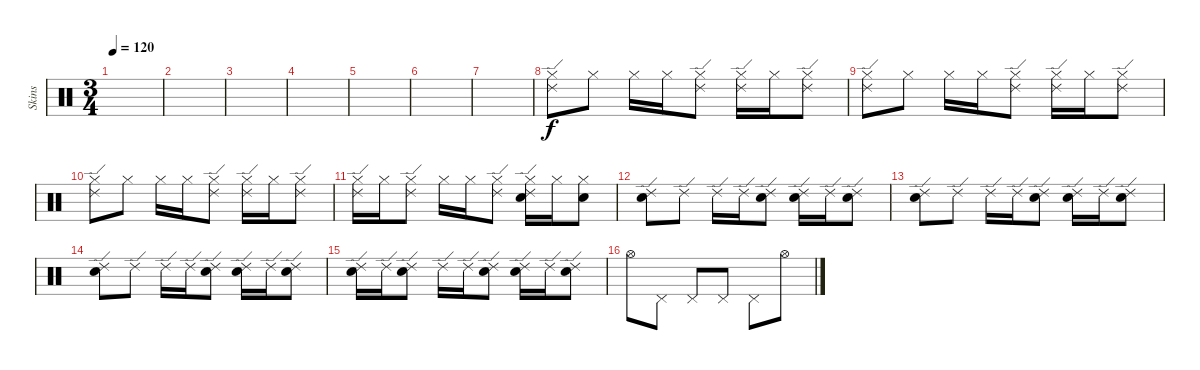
\track ("Skins" "Skins") {instrument percussion}
\staff {score}
\articulation defaults
\ts (3 4)
\tempo 120
\clef neutral
\ks c
|
|
|
|
|
|
|
("Ride (edge) 2" "Hi-Hat (closed)").8 "Hi-Hat (closed)".8 "Hi-Hat (closed)".16 "Hi-Hat (closed)".16 ("Ride (edge) 2" "Hi-Hat (closed)").8 ("Ride (edge) 2" "Hi-Hat (closed)").16 "Hi-Hat (closed)".16 ("Ride (edge) 2" "Hi-Hat (closed)").8 |
("Ride (edge) 2" "Hi-Hat (closed)").8 "Hi-Hat (closed)".8 "Hi-Hat (closed)".16 "Hi-Hat (closed)".16 ("Ride (edge) 2" "Hi-Hat (closed)").8 ("Ride (edge) 2" "Hi-Hat (closed)").16 "Hi-Hat (closed)".16 ("Ride (edge) 2" "Hi-Hat (closed)").8 |
("Ride (edge) 2" "Hi-Hat (closed)").8 "Hi-Hat (closed)".8 "Hi-Hat (closed)".16 "Hi-Hat (closed)".16 ("Ride (edge) 2" "Hi-Hat (closed)").8 ("Ride (edge) 2" "Hi-Hat (closed)").16 "Hi-Hat (closed)".16 ("Ride (edge) 2" "Hi-Hat (closed)").8 |
("Ride (edge) 2" "Hi-Hat (closed)").16 "Hi-Hat (closed)".16 ("Ride (edge) 2" "Hi-Hat (closed)").8 "Hi-Hat (closed)".16 "Hi-Hat (closed)".16 ("Ride (edge) 2" "Hi-Hat (closed)").8 ("Ride (edge) 2" "Hi-Hat (closed)" "Electric Snare (hit)").16 "Hi-Hat (closed)".16 ("Hi-Hat (closed)" "Electric Snare (hit)").8 |
("Snare (hit) 2" "Ride (edge) 2").8 "Ride (edge) 2".8 "Ride (edge) 2".16 "Ride (edge) 2".16 ("Snare (hit) 2" "Ride (edge) 2").8 ("Snare (hit) 2" "Ride (edge) 2").16 "Ride (edge) 2".16 ("Snare (hit) 2" "Ride (edge) 2").8 |
("Snare (hit) 2" "Ride (edge) 2").8 "Ride (edge) 2".8 "Ride (edge) 2".16 "Ride (edge) 2".16 ("Snare (hit) 2" "Ride (edge) 2").8 ("Snare (hit) 2" "Ride (edge) 2").16 "Ride (edge) 2".16 ("Snare (hit) 2" "Ride (edge) 2").8 |
("Snare (hit) 2" "Ride (edge) 2").8 "Ride (edge) 2".8 "Ride (edge) 2".16 "Ride (edge) 2".16 ("Snare (hit) 2" "Ride (edge) 2").8 ("Snare (hit) 2" "Ride (edge) 2").16 "Ride (edge) 2".16 ("Snare (hit) 2" "Ride (edge) 2").8 |
("Snare (hit) 2" "Ride (edge) 2").16 "Ride (edge) 2".16 ("Snare (hit) 2" "Ride (edge) 2").8 "Ride (edge) 2".16 "Ride (edge) 2".16 ("Snare (hit) 2" "Ride (edge) 2").8 ("Snare (hit) 2" "Ride (edge) 2").16 "Ride (edge) 2".16 ("Snare (hit) 2" "Ride (edge) 2").8 |
"Hi-Hat (open)".8 "Pedal Hi-Hat (hit)".8 "Pedal Hi-Hat (hit)".8 "Pedal Hi-Hat (hit)".8 "Pedal Hi-Hat (hit)".8 "Hi-Hat (open)".8
